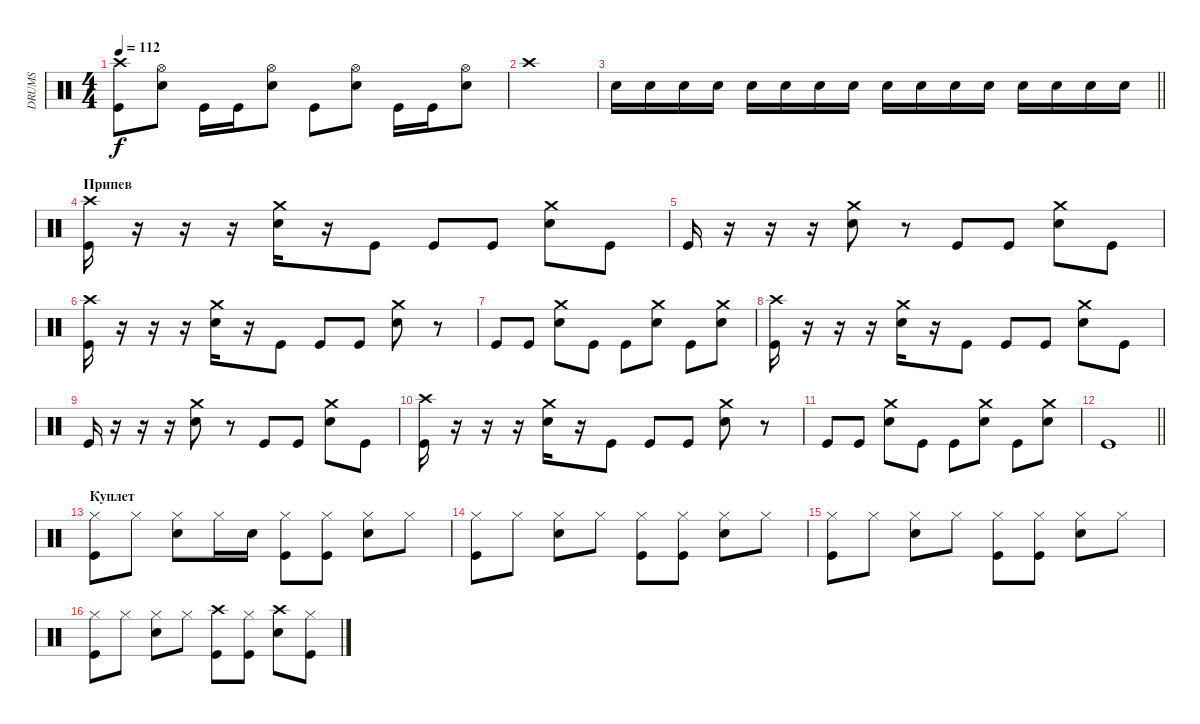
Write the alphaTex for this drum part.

\track ("DRUMS" "DRUMS") {instrument percussion}
\staff {score}
\articulation defaults
\ts (4 4)
\tempo 112
\clef neutral
\ks c
("Crash high (hit)" "Kick (hit)").8{dy f} ("Hi-Hat (open)" "Snare (hit) 2").8 "Kick (hit)".16 "Kick (hit)".16 ("Hi-Hat (open)" "Snare (hit) 2").8 "Kick (hit)".8 ("Hi-Hat (open)" "Snare (hit) 2").8 "Kick (hit)".16 "Kick (hit)".16 ("Hi-Hat (open)" "Snare (hit) 2").8 |
"Crash high (hit)".1 |
\barLineRight lightlight "Snare (hit) 2".16 "Snare (hit) 2".16 "Snare (hit) 2".16 "Snare (hit) 2".16 "Snare (hit) 2".16 "Snare (hit) 2".16 "Snare (hit) 2".16 "Snare (hit) 2".16 "Snare (hit) 2".16 "Snare (hit) 2".16 "Snare (hit) 2".16 "Snare (hit) 2".16 "Snare (hit) 2".16 "Snare (hit) 2".16 "Snare (hit) 2".16 "Snare (hit) 2".16
|
\section ("" "Припев")
("Crash high (hit)" "Kick (hit)").16 r.16 r.16 r.16 ("Crash medium (hit)" "Snare (hit) 2").16 r.16 "Kick (hit)".8 "Kick (hit)".8 "Kick (hit)".8 ("Crash medium (hit)" "Snare (hit) 2").8 "Kick (hit)".8 |
"Kick (hit)".16 r.16 r.16 r.16 ("Crash medium (hit)" "Snare (hit) 2").8 r.8 "Kick (hit)".8 "Kick (hit)".8 ("Crash medium (hit)" "Snare (hit) 2").8 "Kick (hit)".8 |
("Crash high (hit)" "Kick (hit)").16 r.16 r.16 r.16 ("Crash medium (hit)" "Snare (hit) 2").16 r.16 "Kick (hit)".8 "Kick (hit)".8 "Kick (hit)".8 ("Crash medium (hit)" "Snare (hit) 2").8 r.8 |
"Kick (hit)".8 "Kick (hit)".8 ("Crash medium (hit)" "Snare (hit) 2").8 "Kick (hit)".8 "Kick (hit)".8 ("Crash medium (hit)" "Snare (hit) 2").8 "Kick (hit)".8 ("Crash medium (hit)" "Snare (hit) 2").8 |
("Crash high (hit)" "Kick (hit)").16 r.16 r.16 r.16 ("Crash medium (hit)" "Snare (hit) 2").16 r.16 "Kick (hit)".8 "Kick (hit)".8 "Kick (hit)".8 ("Crash medium (hit)" "Snare (hit) 2").8 "Kick (hit)".8 |
"Kick (hit)".16 r.16 r.16 r.16 ("Crash medium (hit)" "Snare (hit) 2").8 r.8 "Kick (hit)".8 "Kick (hit)".8 ("Crash medium (hit)" "Snare (hit) 2").8 "Kick (hit)".8 |
("Crash high (hit)" "Kick (hit)").16 r.16 r.16 r.16 ("Crash medium (hit)" "Snare (hit) 2").16 r.16 "Kick (hit)".8 "Kick (hit)".8 "Kick (hit)".8 ("Crash medium (hit)" "Snare (hit) 2").8 r.8 |
"Kick (hit)".8 "Kick (hit)".8 ("Crash medium (hit)" "Snare (hit) 2").8 "Kick (hit)".8 "Kick (hit)".8 ("Crash medium (hit)" "Snare (hit) 2").8 "Kick (hit)".8 ("Crash medium (hit)" "Snare (hit) 2").8 |
\barLineRight lightlight "Kick (hit)".1
|
\section ("" "Куплет")
("Hi-Hat (closed)" "Kick (hit)").8{volume 13} "Hi-Hat (closed)".8 ("Hi-Hat (closed)" "Snare (hit) 2").8 "Hi-Hat (closed)".16 "Snare (hit) 2".16 ("Hi-Hat (closed)" "Kick (hit)").8 ("Hi-Hat (closed)" "Kick (hit)").8 ("Hi-Hat (closed)" "Snare (hit) 2").8 "Hi-Hat (closed)".8 |
("Hi-Hat (closed)" "Kick (hit)").8{volume 13} "Hi-Hat (closed)".8 ("Hi-Hat (closed)" "Snare (hit) 2").8 "Hi-Hat (closed)".8 ("Hi-Hat (closed)" "Kick (hit)").8 ("Hi-Hat (closed)" "Kick (hit)").8 ("Hi-Hat (closed)" "Snare (hit) 2").8 "Hi-Hat (closed)".8 |
("Hi-Hat (closed)" "Kick (hit)").8{volume 13} "Hi-Hat (closed)".8 ("Hi-Hat (closed)" "Snare (hit) 2").8 "Hi-Hat (closed)".8 ("Hi-Hat (closed)" "Kick (hit)").8 ("Hi-Hat (closed)" "Kick (hit)").8 ("Hi-Hat (closed)" "Snare (hit) 2").8 "Hi-Hat (closed)".8 |
("Hi-Hat (closed)" "Kick (hit)").8{volume 13} "Hi-Hat (closed)".8 ("Hi-Hat (closed)" "Snare (hit) 2").8 "Hi-Hat (closed)".8 ("Crash high (hit)" "Kick (hit)").8 ("Hi-Hat (closed)" "Kick (hit)").8 ("Crash high (hit)" "Snare (hit) 2").8 ("Hi-Hat (closed)" "Kick (hit)").8
